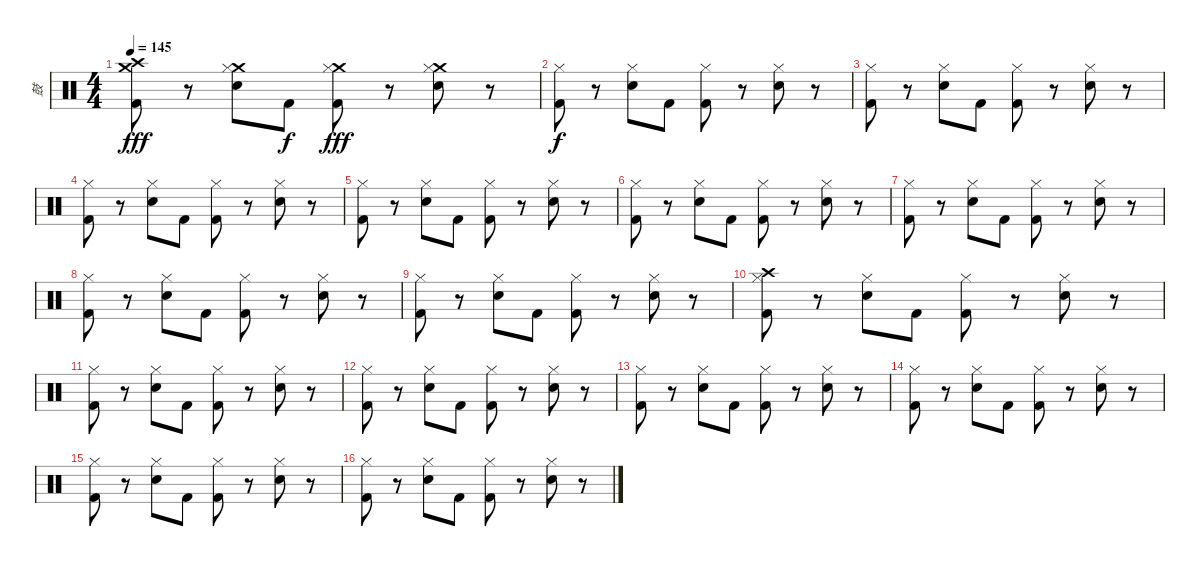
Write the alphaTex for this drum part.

\track ("鼓" "鼓") {instrument percussion}
\staff {score}
\articulation defaults
\ts (4 4)
\tempo 145
\clef neutral
\ks c
("Kick (hit) 2" "Crash medium (hit)" "Crash high (hit)").8{dy fff} r.8 ("Snare (hit) 2" "Crash medium (hit)" "Hi-Hat (closed)").8 "Kick (hit) 2".8{dy f} ("Kick (hit) 2" "Crash medium (hit)" "Hi-Hat (closed)").8{dy fff} r.8 ("Snare (hit) 2" "Crash medium (hit)" "Hi-Hat (closed)").8 r.8 |
("Kick (hit) 2" "Hi-Hat (closed)").8{dy f} r.8 ("Snare (hit) 2" "Hi-Hat (closed)").8 "Kick (hit) 2".8 ("Kick (hit) 2" "Hi-Hat (closed)").8 r.8 ("Snare (hit) 2" "Hi-Hat (closed)").8 r.8 |
("Kick (hit) 2" "Hi-Hat (closed)").8 r.8 ("Snare (hit) 2" "Hi-Hat (closed)").8 "Kick (hit) 2".8 ("Kick (hit) 2" "Hi-Hat (closed)").8 r.8 ("Snare (hit) 2" "Hi-Hat (closed)").8 r.8 |
("Kick (hit) 2" "Hi-Hat (closed)").8 r.8 ("Snare (hit) 2" "Hi-Hat (closed)").8 "Kick (hit) 2".8 ("Kick (hit) 2" "Hi-Hat (closed)").8 r.8 ("Snare (hit) 2" "Hi-Hat (closed)").8 r.8 |
("Kick (hit) 2" "Hi-Hat (closed)").8 r.8 ("Snare (hit) 2" "Hi-Hat (closed)").8 "Kick (hit) 2".8 ("Kick (hit) 2" "Hi-Hat (closed)").8 r.8 ("Snare (hit) 2" "Hi-Hat (closed)").8 r.8 |
("Kick (hit) 2" "Hi-Hat (closed)").8 r.8 ("Snare (hit) 2" "Hi-Hat (closed)").8 "Kick (hit) 2".8 ("Kick (hit) 2" "Hi-Hat (closed)").8 r.8 ("Snare (hit) 2" "Hi-Hat (closed)").8 r.8 |
("Kick (hit) 2" "Hi-Hat (closed)").8 r.8 ("Snare (hit) 2" "Hi-Hat (closed)").8 "Kick (hit) 2".8 ("Kick (hit) 2" "Hi-Hat (closed)").8 r.8 ("Snare (hit) 2" "Hi-Hat (closed)").8 r.8 |
("Kick (hit) 2" "Hi-Hat (closed)").8 r.8 ("Snare (hit) 2" "Hi-Hat (closed)").8 "Kick (hit) 2".8 ("Kick (hit) 2" "Hi-Hat (closed)").8 r.8 ("Snare (hit) 2" "Hi-Hat (closed)").8 r.8 |
("Kick (hit) 2" "Hi-Hat (closed)").8 r.8 ("Snare (hit) 2" "Hi-Hat (closed)").8 "Kick (hit) 2".8 ("Kick (hit) 2" "Hi-Hat (closed)").8 r.8 ("Snare (hit) 2" "Hi-Hat (closed)").8 r.8 |
("Kick (hit) 2" "Crash high (hit)" "Hi-Hat (closed)").8 r.8 ("Snare (hit) 2" "Hi-Hat (closed)").8 "Kick (hit) 2".8 ("Kick (hit) 2" "Hi-Hat (closed)").8 r.8 ("Snare (hit) 2" "Hi-Hat (closed)").8 r.8 |
("Kick (hit) 2" "Hi-Hat (closed)").8 r.8 ("Snare (hit) 2" "Hi-Hat (closed)").8 "Kick (hit) 2".8 ("Kick (hit) 2" "Hi-Hat (closed)").8 r.8 ("Snare (hit) 2" "Hi-Hat (closed)").8 r.8 |
("Kick (hit) 2" "Hi-Hat (closed)").8 r.8 ("Snare (hit) 2" "Hi-Hat (closed)").8 "Kick (hit) 2".8 ("Kick (hit) 2" "Hi-Hat (closed)").8 r.8 ("Snare (hit) 2" "Hi-Hat (closed)").8 r.8 |
("Kick (hit) 2" "Hi-Hat (closed)").8 r.8 ("Snare (hit) 2" "Hi-Hat (closed)").8 "Kick (hit) 2".8 ("Kick (hit) 2" "Hi-Hat (closed)").8 r.8 ("Snare (hit) 2" "Hi-Hat (closed)").8 r.8 |
("Kick (hit) 2" "Hi-Hat (closed)").8 r.8 ("Snare (hit) 2" "Hi-Hat (closed)").8 "Kick (hit) 2".8 ("Kick (hit) 2" "Hi-Hat (closed)").8 r.8 ("Snare (hit) 2" "Hi-Hat (closed)").8 r.8 |
("Kick (hit) 2" "Hi-Hat (closed)").8 r.8 ("Snare (hit) 2" "Hi-Hat (closed)").8 "Kick (hit) 2".8 ("Kick (hit) 2" "Hi-Hat (closed)").8 r.8 ("Snare (hit) 2" "Hi-Hat (closed)").8 r.8 |
("Kick (hit) 2" "Hi-Hat (closed)").8 r.8 ("Snare (hit) 2" "Hi-Hat (closed)").8 "Kick (hit) 2".8 ("Kick (hit) 2" "Hi-Hat (closed)").8 r.8 ("Snare (hit) 2" "Hi-Hat (closed)").8 r.8
